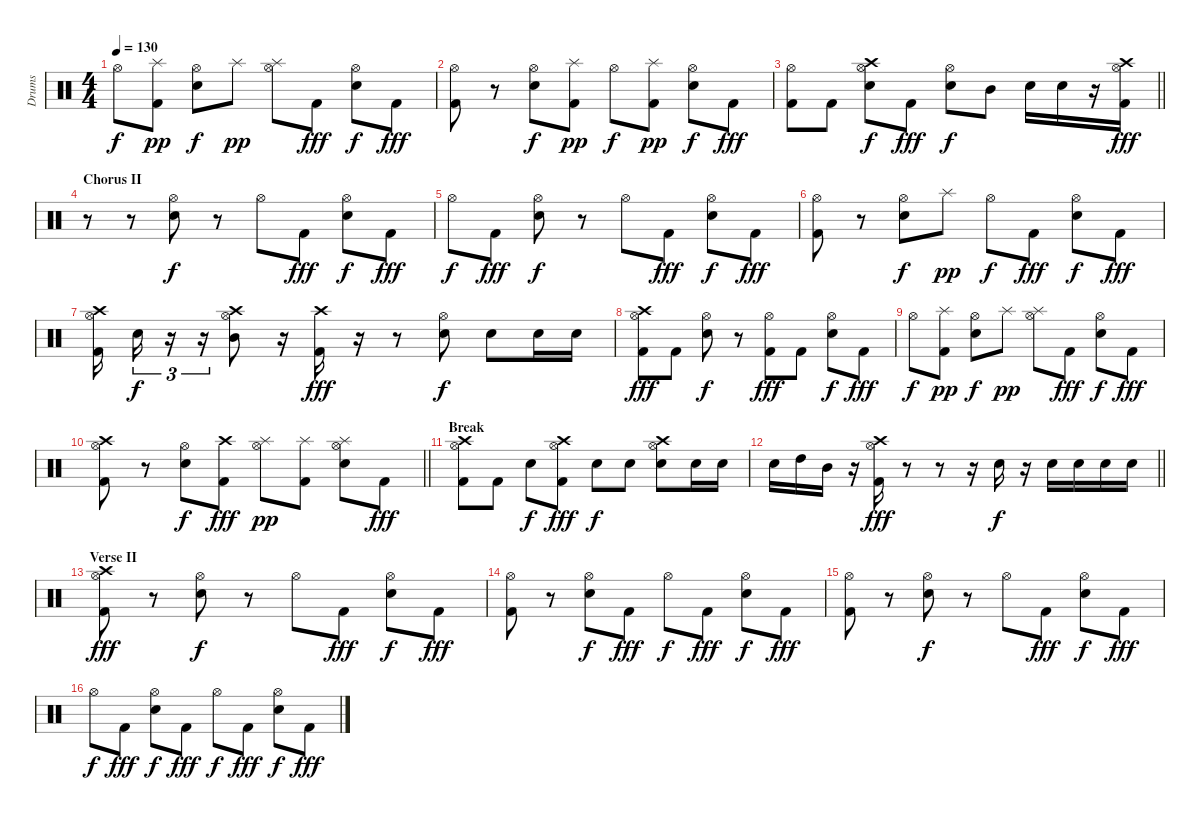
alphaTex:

\track ("Drums" "Drums") {instrument percussion}
\staff {score}
\articulation defaults
\ts (4 4)
\tempo 130
\clef neutral
\ks c "Hi-Hat (open)".8{dy f}
("Kick (hit) 2" "Splash (hit)").8{dy pp} ("Snare (hit) 2" "Hi-Hat (open)").8{dy f} "Splash (hit)".8{dy pp} ("Splash (hit)" "Hi-Hat (open)").8 "Kick (hit) 2".8{dy fff} ("Snare (hit) 2" "Hi-Hat (open)").8{dy f} "Kick (hit) 2".8{dy fff} |
("Kick (hit) 2" "Hi-Hat (open)").8 r.8 ("Snare (hit) 2" "Hi-Hat (open)").8{dy f} ("Kick (hit) 2" "Splash (hit)").8{dy pp} "Hi-Hat (open)".8{dy f} ("Kick (hit) 2" "Splash (hit)").8{dy pp} ("Snare (hit) 2" "Hi-Hat (open)").8{dy f} "Kick (hit) 2".8{dy fff} |
\barLineRight lightlight
("Kick (hit) 2" "Hi-Hat (open)").8 "Kick (hit) 2".8 ("Snare (hit) 2" "Crash high (hit)" "Hi-Hat (open)").8{dy f} "Kick (hit) 2".8{dy fff} ("Snare (hit) 2" "Hi-Hat (open)").8{dy f} "Mid Tom (hit)".8 "Snare (hit) 2".16 "Snare (hit) 2".16 r.16 ("Kick (hit) 2" "Hi-Hat (open)" "Crash high (hit)").16{dy fff} |
\section ("" "Chorus II")
r.8 r.8 ("Snare (hit) 2" "Hi-Hat (open)").8{dy f} r.8 "Hi-Hat (open)".8 "Kick (hit) 2".8{dy fff} ("Snare (hit) 2" "Hi-Hat (open)").8{dy f} "Kick (hit) 2".8{dy fff} |
"Hi-Hat (open)".8{dy f} "Kick (hit) 2".8{dy fff} ("Snare (hit) 2" "Hi-Hat (open)").8{dy f} r.8 "Hi-Hat (open)".8 "Kick (hit) 2".8{dy fff} ("Snare (hit) 2" "Hi-Hat (open)").8{dy f} "Kick (hit) 2".8{dy fff} |
("Kick (hit) 2" "Hi-Hat (open)").8 r.8 ("Snare (hit) 2" "Hi-Hat (open)").8{dy f} "Splash (hit)".8{dy pp} "Hi-Hat (open)".8{dy f} "Kick (hit) 2".8{dy fff} ("Snare (hit) 2" "Hi-Hat (open)").8{dy f} "Kick (hit) 2".8{dy fff} |
("Kick (hit) 2" "Crash high (hit)" "Hi-Hat (open)").16 "Snare (hit) 2".16{tu (3 2) dy f} r.16{tu (3 2)} r.16{tu (3 2)} ("Mid Tom (hit)" "Crash high (hit)" "Hi-Hat (open)").8 r.16 ("Kick (hit) 2" "Crash high (hit)").16{dy fff} r.16 r.8 ("Snare (hit) 2" "Hi-Hat (open)").8{dy f} "Snare (hit) 2".8 "Snare (hit) 2".16 "Snare (hit) 2".16 |
("Kick (hit) 2" "Crash high (hit)" "Hi-Hat (open)").8{dy fff} "Kick (hit) 2".8 ("Snare (hit) 2" "Hi-Hat (open)").8{dy f} r.8 ("Kick (hit) 2" "Hi-Hat (open)").8{dy fff} "Kick (hit) 2".8 ("Snare (hit) 2" "Hi-Hat (open)").8{dy f} "Kick (hit) 2".8{dy fff} |
"Hi-Hat (open)".8{dy f} ("Kick (hit) 2" "Splash (hit)").8{dy pp} ("Snare (hit) 2" "Hi-Hat (open)").8{dy f} "Splash (hit)".8{dy pp} ("Splash (hit)" "Hi-Hat (open)").8 "Kick (hit) 2".8{dy fff} ("Snare (hit) 2" "Hi-Hat (open)").8{dy f} "Kick (hit) 2".8{dy fff} |
\barLineRight lightlight
("Kick (hit) 2" "Crash high (hit)" "Hi-Hat (open)").8 r.8 ("Snare (hit) 2" "Hi-Hat (open)").8{dy f} ("Kick (hit) 2" "Crash high (hit)").8{dy fff} ("Splash (hit)" "Hi-Hat (open)").8{dy pp} ("Kick (hit) 2" "Splash (hit)").8 ("Snare (hit) 2" "Splash (hit)" "Hi-Hat (open)").8 "Kick (hit) 2".8{dy fff} |
\section ("" "Break ")
("Kick (hit) 2" "Crash high (hit)" "Hi-Hat (open)").8 "Kick (hit) 2".8 "Snare (hit) 2".8{dy f} ("Kick (hit) 2" "Crash high (hit)" "Hi-Hat (open)").8{dy fff} "Snare (hit) 2".8{dy f} "Snare (hit) 2".8 ("Snare (hit) 2" "Crash high (hit)" "Hi-Hat (open)").8 "Snare (hit) 2".16 "Snare (hit) 2".16 |
\barLineRight lightlight "Snare (hit) 2".16 "High Tom (hit)".16 "Mid Tom (hit)".16
r.16 ("Kick (hit) 2" "Crash high (hit)" "Hi-Hat (open)").16{dy fff} r.8 r.8 r.16 "Snare (hit) 2".16{dy f} r.16 "Snare (hit) 2".16 "Snare (hit) 2".16 "Snare (hit) 2".16 "Snare (hit) 2".16 |
\section ("" "Verse II")
("Kick (hit) 2" "Crash high (hit)" "Hi-Hat (open)").8{dy fff} r.8 ("Snare (hit) 2" "Hi-Hat (open)").8{dy f} r.8 "Hi-Hat (open)".8 "Kick (hit) 2".8{dy fff} ("Snare (hit) 2" "Hi-Hat (open)").8{dy f} "Kick (hit) 2".8{dy fff} |
("Kick (hit) 2" "Hi-Hat (open)").8 r.8 ("Snare (hit) 2" "Hi-Hat (open)").8{dy f} "Kick (hit) 2".8{dy fff} "Hi-Hat (open)".8{dy f} "Kick (hit) 2".8{dy fff} ("Snare (hit) 2" "Hi-Hat (open)").8{dy f} "Kick (hit) 2".8{dy fff} |
("Kick (hit) 2" "Hi-Hat (open)").8 r.8 ("Snare (hit) 2" "Hi-Hat (open)").8{dy f} r.8 "Hi-Hat (open)".8 "Kick (hit) 2".8{dy fff} ("Snare (hit) 2" "Hi-Hat (open)").8{dy f} "Kick (hit) 2".8{dy fff} |
"Hi-Hat (open)".8{dy f} "Kick (hit) 2".8{dy fff} ("Snare (hit) 2" "Hi-Hat (open)").8{dy f} "Kick (hit) 2".8{dy fff} "Hi-Hat (open)".8{dy f} "Kick (hit) 2".8{dy fff} ("Snare (hit) 2" "Hi-Hat (open)").8{dy f} "Kick (hit) 2".8{dy fff}
